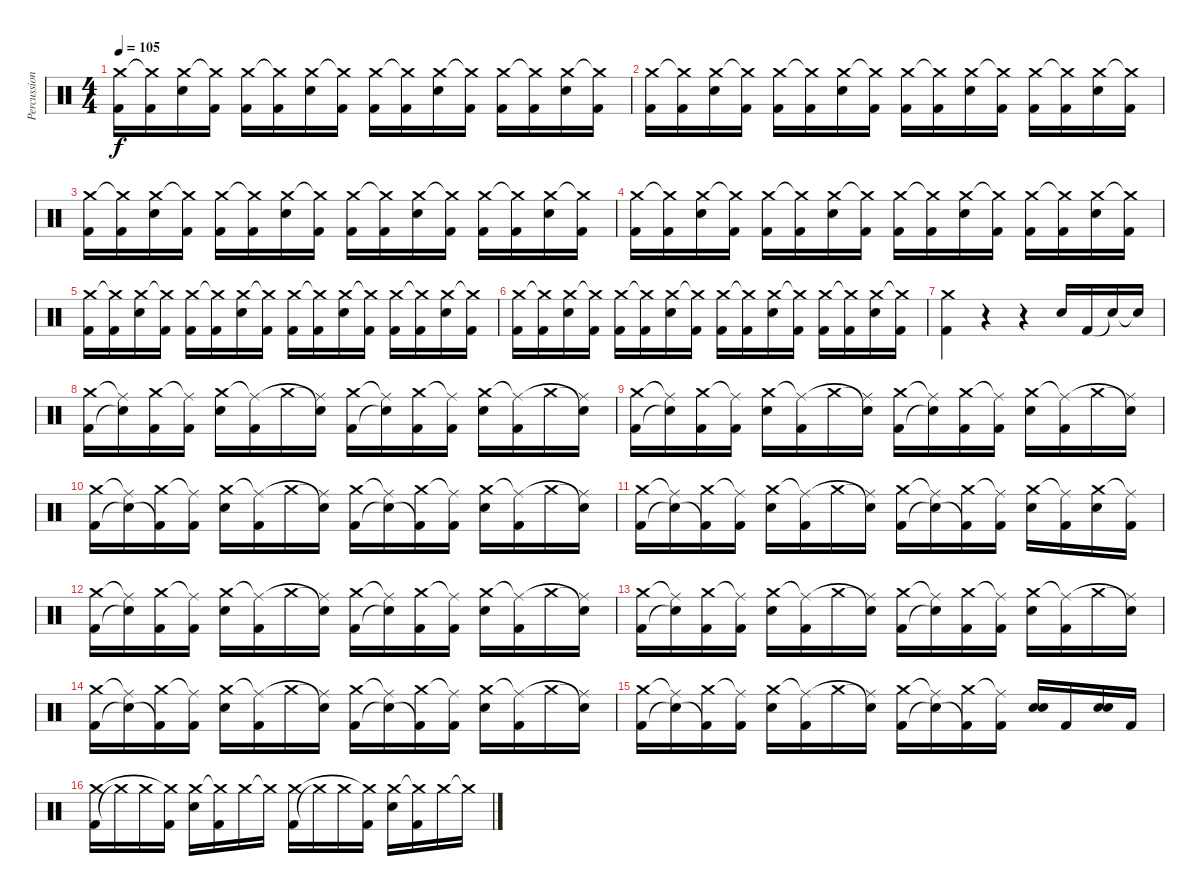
\track ("Percussions" "Percussion") {instrument percussion}
\staff {score}
\articulation defaults
\ts (4 4)
\tempo 105
\clef neutral
\ks c
("Kick (hit) 2" "Crash medium (hit)").16{dy f} ("Kick (hit) 2" "Crash medium (hit)"{t}).16 ("Electric Snare (hit)" "Crash medium (hit)").16 ("Kick (hit) 2" "Crash medium (hit)"{t}).16 ("Kick (hit) 2" "Crash medium (hit)").16 ("Kick (hit) 2" "Crash medium (hit)"{t}).16 ("Electric Snare (hit)" "Crash medium (hit)").16 ("Kick (hit) 2" "Crash medium (hit)"{t}).16 ("Kick (hit) 2" "Crash medium (hit)").16 ("Kick (hit) 2" "Crash medium (hit)"{t}).16 ("Electric Snare (hit)" "Crash medium (hit)").16 ("Kick (hit) 2" "Crash medium (hit)"{t}).16 ("Kick (hit) 2" "Crash medium (hit)").16 ("Kick (hit) 2" "Crash medium (hit)"{t}).16 ("Electric Snare (hit)" "Crash medium (hit)").16 ("Kick (hit) 2" "Crash medium (hit)"{t}).16 |
("Kick (hit) 2" "Crash medium (hit)").16 ("Kick (hit) 2" "Crash medium (hit)"{t}).16 ("Electric Snare (hit)" "Crash medium (hit)").16 ("Kick (hit) 2" "Crash medium (hit)"{t}).16 ("Kick (hit) 2" "Crash medium (hit)").16 ("Kick (hit) 2" "Crash medium (hit)"{t}).16 ("Electric Snare (hit)" "Crash medium (hit)").16 ("Kick (hit) 2" "Crash medium (hit)"{t}).16 ("Kick (hit) 2" "Crash medium (hit)").16 ("Kick (hit) 2" "Crash medium (hit)"{t}).16 ("Electric Snare (hit)" "Crash medium (hit)").16 ("Kick (hit) 2" "Crash medium (hit)"{t}).16 ("Kick (hit) 2" "Crash medium (hit)").16 ("Kick (hit) 2" "Crash medium (hit)"{t}).16 ("Electric Snare (hit)" "Crash medium (hit)").16 ("Kick (hit) 2" "Crash medium (hit)"{t}).16 |
("Kick (hit) 2" "Crash medium (hit)").16 ("Kick (hit) 2" "Crash medium (hit)"{t}).16 ("Electric Snare (hit)" "Crash medium (hit)").16 ("Kick (hit) 2" "Crash medium (hit)"{t}).16 ("Kick (hit) 2" "Crash medium (hit)").16 ("Kick (hit) 2" "Crash medium (hit)"{t}).16 ("Electric Snare (hit)" "Crash medium (hit)").16 ("Kick (hit) 2" "Crash medium (hit)"{t}).16 ("Kick (hit) 2" "Crash medium (hit)").16 ("Kick (hit) 2" "Crash medium (hit)"{t}).16 ("Electric Snare (hit)" "Crash medium (hit)").16 ("Kick (hit) 2" "Crash medium (hit)"{t}).16 ("Kick (hit) 2" "Crash medium (hit)").16 ("Kick (hit) 2" "Crash medium (hit)"{t}).16 ("Electric Snare (hit)" "Crash medium (hit)").16 ("Kick (hit) 2" "Crash medium (hit)"{t}).16 |
("Kick (hit) 2" "Crash medium (hit)").16 ("Kick (hit) 2" "Crash medium (hit)"{t}).16 ("Electric Snare (hit)" "Crash medium (hit)").16 ("Kick (hit) 2" "Crash medium (hit)"{t}).16 ("Kick (hit) 2" "Crash medium (hit)").16 ("Kick (hit) 2" "Crash medium (hit)"{t}).16 ("Electric Snare (hit)" "Crash medium (hit)").16 ("Kick (hit) 2" "Crash medium (hit)"{t}).16 ("Kick (hit) 2" "Crash medium (hit)").16 ("Kick (hit) 2" "Crash medium (hit)"{t}).16 ("Electric Snare (hit)" "Crash medium (hit)").16 ("Kick (hit) 2" "Crash medium (hit)"{t}).16 ("Kick (hit) 2" "Crash medium (hit)").16 ("Kick (hit) 2" "Crash medium (hit)"{t}).16 ("Electric Snare (hit)" "Crash medium (hit)").16 ("Kick (hit) 2" "Crash medium (hit)"{t}).16 |
("Kick (hit) 2" "Crash medium (hit)").16 ("Kick (hit) 2" "Crash medium (hit)"{t}).16 ("Electric Snare (hit)" "Crash medium (hit)").16 ("Kick (hit) 2" "Crash medium (hit)"{t}).16 ("Kick (hit) 2" "Crash medium (hit)").16 ("Kick (hit) 2" "Crash medium (hit)"{t}).16 ("Electric Snare (hit)" "Crash medium (hit)").16 ("Kick (hit) 2" "Crash medium (hit)"{t}).16 ("Kick (hit) 2" "Crash medium (hit)").16 ("Kick (hit) 2" "Crash medium (hit)"{t}).16 ("Electric Snare (hit)" "Crash medium (hit)").16 ("Kick (hit) 2" "Crash medium (hit)"{t}).16 ("Kick (hit) 2" "Crash medium (hit)").16 ("Kick (hit) 2" "Crash medium (hit)"{t}).16 ("Electric Snare (hit)" "Crash medium (hit)").16 ("Kick (hit) 2" "Crash medium (hit)"{t}).16 |
("Kick (hit) 2" "Crash medium (hit)").16 ("Kick (hit) 2" "Crash medium (hit)"{t}).16 ("Electric Snare (hit)" "Crash medium (hit)").16 ("Kick (hit) 2" "Crash medium (hit)"{t}).16 ("Kick (hit) 2" "Crash medium (hit)").16 ("Kick (hit) 2" "Crash medium (hit)"{t}).16 ("Electric Snare (hit)" "Crash medium (hit)").16 ("Kick (hit) 2" "Crash medium (hit)"{t}).16 ("Kick (hit) 2" "Crash medium (hit)").16 ("Kick (hit) 2" "Crash medium (hit)"{t}).16 ("Electric Snare (hit)" "Crash medium (hit)").16 ("Kick (hit) 2" "Crash medium (hit)"{t}).16 ("Kick (hit) 2" "Crash medium (hit)").16 ("Kick (hit) 2" "Crash medium (hit)"{t}).16 ("Electric Snare (hit)" "Crash medium (hit)").16 ("Kick (hit) 2" "Crash medium (hit)"{t}).16 |
("Crash medium (hit)" "Kick (hit) 2").4 r.4 r.4 "Electric Snare (hit)".16 "Kick (hit) 2".16 "Snare (hit)"{t}.16 "Snare (hit)"{t}.16 |
("Kick (hit) 2" "Crash medium (hit)").16 ("Snare (hit)"{t} "Ride (middle)"{t}).16 ("Kick (hit) 2" "Crash medium (hit)").16 ("Kick (hit) 2" "Ride (middle)"{t}).16 ("Electric Snare (hit)" "Crash medium (hit)").16 ("Kick (hit) 2" "Ride (middle)"{t}).16 "Crash medium (hit)".16 ("Snare (hit)"{t} "Ride (middle)"{t}).16 ("Kick (hit) 2" "Crash medium (hit)").16 ("Snare (hit)"{t} "Ride (middle)"{t}).16 ("Kick (hit) 2" "Crash medium (hit)").16 ("Kick (hit) 2" "Ride (middle)"{t}).16 ("Electric Snare (hit)" "Crash medium (hit)").16 ("Kick (hit) 2" "Ride (middle)"{t}).16 "Crash medium (hit)".16 ("Snare (hit)"{t} "Ride (middle)"{t}).16 |
("Kick (hit) 2" "Crash medium (hit)").16 ("Snare (hit)"{t} "Ride (middle)"{t}).16 ("Kick (hit) 2" "Crash medium (hit)").16 ("Kick (hit) 2" "Ride (middle)"{t}).16 ("Electric Snare (hit)" "Crash medium (hit)").16 ("Kick (hit) 2" "Ride (middle)"{t}).16 "Crash medium (hit)".16 ("Snare (hit)"{t} "Ride (middle)"{t}).16 ("Kick (hit) 2" "Crash medium (hit)").16 ("Snare (hit)"{t} "Ride (middle)"{t}).16 ("Kick (hit) 2" "Crash medium (hit)").16 ("Kick (hit) 2" "Ride (middle)"{t}).16 ("Electric Snare (hit)" "Crash medium (hit)").16 ("Kick (hit) 2" "Ride (middle)"{t}).16 "Crash medium (hit)".16 ("Snare (hit)"{t} "Ride (middle)"{t}).16 |
("Kick (hit) 2" "Crash medium (hit)").16 ("Snare (hit)"{t} "Ride (middle)"{t}).16 ("Kick (hit) 2"{t} "Crash medium (hit)").16 ("Kick (hit) 2" "Ride (middle)"{t}).16 ("Electric Snare (hit)" "Crash medium (hit)").16 ("Kick (hit) 2" "Ride (middle)"{t}).16 "Crash medium (hit)".16 ("Snare (hit)"{t} "Ride (middle)"{t}).16 ("Kick (hit) 2" "Crash medium (hit)").16 ("Snare (hit)"{t} "Ride (middle)"{t}).16 ("Kick (hit) 2"{t} "Crash medium (hit)").16 ("Kick (hit) 2" "Ride (middle)"{t}).16 ("Electric Snare (hit)" "Crash medium (hit)").16 ("Kick (hit) 2" "Ride (middle)"{t}).16 "Crash medium (hit)".16 ("Snare (hit)"{t} "Ride (middle)"{t}).16 |
("Kick (hit) 2" "Crash medium (hit)").16 ("Snare (hit)"{t} "Ride (middle)"{t}).16 ("Kick (hit) 2"{t} "Crash medium (hit)").16 ("Kick (hit) 2" "Ride (middle)"{t}).16 ("Electric Snare (hit)" "Crash medium (hit)").16 ("Kick (hit) 2" "Ride (middle)"{t}).16 "Crash medium (hit)".16 ("Snare (hit)"{t} "Ride (middle)"{t}).16 ("Kick (hit) 2" "Crash medium (hit)").16 ("Snare (hit)"{t} "Ride (middle)"{t}).16 ("Kick (hit) 2"{t} "Crash medium (hit)").16 ("Kick (hit) 2" "Ride (middle)"{t}).16 ("Electric Snare (hit)" "Crash medium (hit)").16 ("Kick (hit) 2" "Ride (middle)"{t}).16 ("Electric Snare (hit)" "Crash medium (hit)").16 ("Kick (hit) 2" "Ride (middle)"{t}).16 |
("Kick (hit) 2" "Crash medium (hit)").16 ("Snare (hit)"{t} "Ride (middle)"{t}).16 ("Kick (hit) 2" "Crash medium (hit)").16 ("Kick (hit) 2" "Ride (middle)"{t}).16 ("Electric Snare (hit)" "Crash medium (hit)").16 ("Kick (hit) 2" "Ride (middle)"{t}).16 "Crash medium (hit)".16 ("Snare (hit)"{t} "Ride (middle)"{t}).16 ("Kick (hit) 2" "Crash medium (hit)").16 ("Snare (hit)"{t} "Ride (middle)"{t}).16 ("Kick (hit) 2" "Crash medium (hit)").16 ("Kick (hit) 2" "Ride (middle)"{t}).16 ("Electric Snare (hit)" "Crash medium (hit)").16 ("Kick (hit) 2" "Ride (middle)"{t}).16 "Crash medium (hit)".16 ("Snare (hit)"{t} "Ride (middle)"{t}).16 |
("Kick (hit) 2" "Crash medium (hit)").16 ("Snare (hit)"{t} "Ride (middle)"{t}).16 ("Kick (hit) 2" "Crash medium (hit)").16 ("Kick (hit) 2" "Ride (middle)"{t}).16 ("Electric Snare (hit)" "Crash medium (hit)").16 ("Kick (hit) 2" "Ride (middle)"{t}).16 "Crash medium (hit)".16 ("Snare (hit)"{t} "Ride (middle)"{t}).16 ("Kick (hit) 2" "Crash medium (hit)").16 ("Snare (hit)"{t} "Ride (middle)"{t}).16 ("Kick (hit) 2" "Crash medium (hit)").16 ("Kick (hit) 2" "Ride (middle)"{t}).16 ("Electric Snare (hit)" "Crash medium (hit)").16 ("Kick (hit) 2" "Ride (middle)"{t}).16 "Crash medium (hit)".16 ("Snare (hit)"{t} "Ride (middle)"{t}).16 |
("Kick (hit) 2" "Crash medium (hit)").16 ("Snare (hit)"{t} "Ride (middle)"{t}).16 ("Kick (hit) 2"{t} "Crash medium (hit)").16 ("Kick (hit) 2" "Ride (middle)"{t}).16 ("Electric Snare (hit)" "Crash medium (hit)").16 ("Kick (hit) 2" "Ride (middle)"{t}).16 "Crash medium (hit)".16 ("Snare (hit)"{t} "Ride (middle)"{t}).16 ("Kick (hit) 2" "Crash medium (hit)").16 ("Snare (hit)"{t} "Ride (middle)"{t}).16 ("Kick (hit) 2"{t} "Crash medium (hit)").16 ("Kick (hit) 2" "Ride (middle)"{t}).16 ("Electric Snare (hit)" "Crash medium (hit)").16 ("Kick (hit) 2" "Ride (middle)"{t}).16 "Crash medium (hit)".16 ("Snare (hit)"{t} "Ride (middle)"{t}).16 |
("Kick (hit) 2" "Crash medium (hit)").16 ("Snare (hit)"{t} "Ride (middle)"{t}).16 ("Kick (hit) 2"{t} "Crash medium (hit)").16 ("Kick (hit) 2" "Ride (middle)"{t}).16 ("Electric Snare (hit)" "Crash medium (hit)").16 ("Kick (hit) 2" "Ride (middle)"{t}).16 "Crash medium (hit)".16 ("Snare (hit)"{t} "Ride (middle)"{t}).16 ("Kick (hit) 2" "Crash medium (hit)").16 ("Snare (hit)"{t} "Ride (middle)"{t}).16 ("Kick (hit) 2"{t} "Crash medium (hit)").16 ("Kick (hit) 2" "Ride (middle)"{t}).16 ("Electric Snare (hit)" "Electric Snare (hit)").16 "Kick (hit) 2".16 ("Electric Snare (hit)" "Electric Snare (hit)").16 "Kick (hit) 2".16 |
("Kick (hit) 2" "Crash medium (hit)").16 "Crash medium (hit)"{t}.16 "Crash medium (hit)".16 ("Kick (hit) 2" "Crash medium (hit)"{t}).16 ("Electric Snare (hit)" "Crash medium (hit)").16 ("Kick (hit) 2" "Crash medium (hit)"{t}).16 "Crash medium (hit)".16 "Crash medium (hit)"{t}.16 ("Kick (hit) 2" "Crash medium (hit)").16 "Crash medium (hit)"{t}.16 "Crash medium (hit)".16 ("Kick (hit) 2" "Crash medium (hit)"{t}).16 ("Electric Snare (hit)" "Crash medium (hit)").16 ("Kick (hit) 2" "Crash medium (hit)"{t}).16 "Crash medium (hit)".16 "Crash medium (hit)"{t}.16
